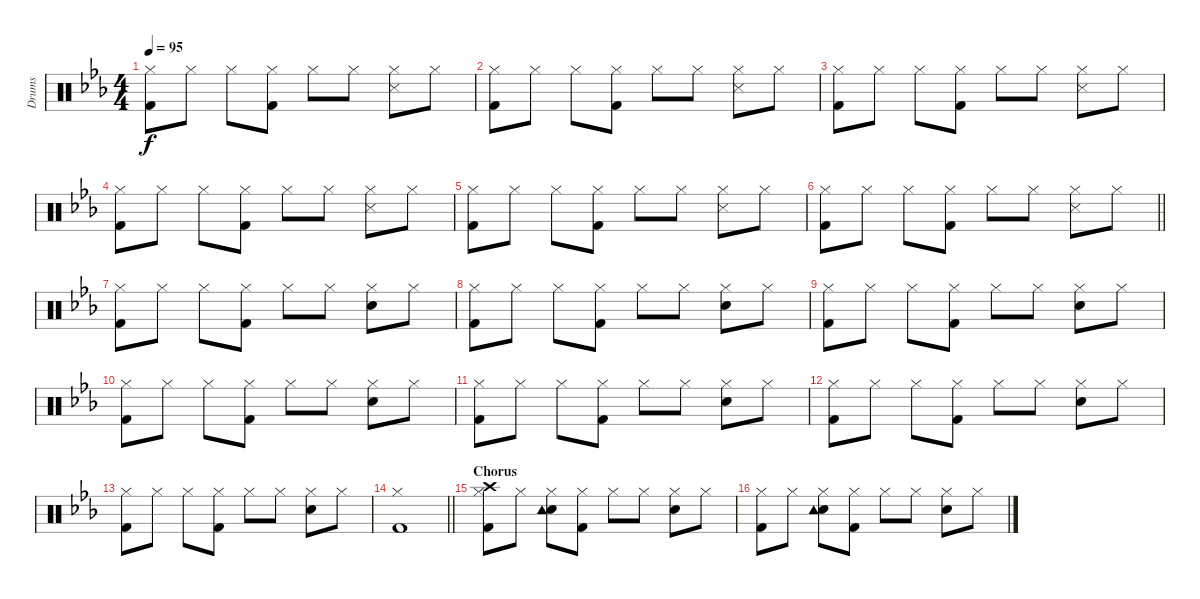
\track ("Drums" "Drums") {instrument percussion}
\staff {score}
\articulation defaults
\ts (4 4)
\tempo 95
\clef neutral
\ks eb
("Hi-Hat (closed)" "Kick (hit) 2").8{dy f} "Hi-Hat (closed)".8 "Hi-Hat (closed)".8 ("Hi-Hat (closed)" "Kick (hit) 2").8 "Hi-Hat (closed)".8 "Hi-Hat (closed)".8 ("Hi-Hat (closed)" "Snare (side stick) 3").8 "Hi-Hat (closed)".8 |
("Hi-Hat (closed)" "Kick (hit) 2").8 "Hi-Hat (closed)".8 "Hi-Hat (closed)".8 ("Hi-Hat (closed)" "Kick (hit) 2").8 "Hi-Hat (closed)".8 "Hi-Hat (closed)".8 ("Hi-Hat (closed)" "Snare (side stick) 3").8 "Hi-Hat (closed)".8 |
("Hi-Hat (closed)" "Kick (hit) 2").8 "Hi-Hat (closed)".8 "Hi-Hat (closed)".8 ("Hi-Hat (closed)" "Kick (hit) 2").8 "Hi-Hat (closed)".8 "Hi-Hat (closed)".8 ("Hi-Hat (closed)" "Snare (side stick) 3").8 "Hi-Hat (closed)".8 |
("Hi-Hat (closed)" "Kick (hit) 2").8 "Hi-Hat (closed)".8 "Hi-Hat (closed)".8 ("Hi-Hat (closed)" "Kick (hit) 2").8 "Hi-Hat (closed)".8 "Hi-Hat (closed)".8 ("Hi-Hat (closed)" "Snare (side stick) 3").8 "Hi-Hat (closed)".8 |
("Hi-Hat (closed)" "Kick (hit) 2").8 "Hi-Hat (closed)".8 "Hi-Hat (closed)".8 ("Hi-Hat (closed)" "Kick (hit) 2").8 "Hi-Hat (closed)".8 "Hi-Hat (closed)".8 ("Hi-Hat (closed)" "Snare (side stick) 3").8 "Hi-Hat (closed)".8 |
\barLineRight lightlight
("Hi-Hat (closed)" "Kick (hit) 2").8 "Hi-Hat (closed)".8 "Hi-Hat (closed)".8 ("Hi-Hat (closed)" "Kick (hit) 2").8 "Hi-Hat (closed)".8 "Hi-Hat (closed)".8 ("Hi-Hat (closed)" "Snare (side stick) 3").8 "Hi-Hat (closed)".8 |
\section ("" "")
("Hi-Hat (closed)" "Kick (hit) 2").8 "Hi-Hat (closed)".8 "Hi-Hat (closed)".8 ("Hi-Hat (closed)" "Kick (hit) 2").8 "Hi-Hat (closed)".8 "Hi-Hat (closed)".8 ("Hi-Hat (closed)" "Snare (hit) 2").8 "Hi-Hat (closed)".8 |
("Hi-Hat (closed)" "Kick (hit) 2").8 "Hi-Hat (closed)".8 "Hi-Hat (closed)".8 ("Hi-Hat (closed)" "Kick (hit) 2").8 "Hi-Hat (closed)".8 "Hi-Hat (closed)".8 ("Hi-Hat (closed)" "Snare (hit) 2").8 "Hi-Hat (closed)".8 |
("Hi-Hat (closed)" "Kick (hit) 2").8 "Hi-Hat (closed)".8 "Hi-Hat (closed)".8 ("Hi-Hat (closed)" "Kick (hit) 2").8 "Hi-Hat (closed)".8 "Hi-Hat (closed)".8 ("Hi-Hat (closed)" "Snare (hit) 2").8 "Hi-Hat (closed)".8 |
("Hi-Hat (closed)" "Kick (hit) 2").8 "Hi-Hat (closed)".8 "Hi-Hat (closed)".8 ("Hi-Hat (closed)" "Kick (hit) 2").8 "Hi-Hat (closed)".8 "Hi-Hat (closed)".8 ("Hi-Hat (closed)" "Snare (hit) 2").8 "Hi-Hat (closed)".8 |
("Hi-Hat (closed)" "Kick (hit) 2").8 "Hi-Hat (closed)".8 "Hi-Hat (closed)".8 ("Hi-Hat (closed)" "Kick (hit) 2").8 "Hi-Hat (closed)".8 "Hi-Hat (closed)".8 ("Hi-Hat (closed)" "Snare (hit) 2").8 "Hi-Hat (closed)".8 |
("Hi-Hat (closed)" "Kick (hit) 2").8 "Hi-Hat (closed)".8 "Hi-Hat (closed)".8 ("Hi-Hat (closed)" "Kick (hit) 2").8 "Hi-Hat (closed)".8 "Hi-Hat (closed)".8 ("Hi-Hat (closed)" "Snare (hit) 2").8 "Hi-Hat (closed)".8 |
("Hi-Hat (closed)" "Kick (hit) 2").8 "Hi-Hat (closed)".8 "Hi-Hat (closed)".8 ("Hi-Hat (closed)" "Kick (hit) 2").8 "Hi-Hat (closed)".8 "Hi-Hat (closed)".8 ("Hi-Hat (closed)" "Snare (hit) 2").8 "Hi-Hat (closed)".8 |
\barLineRight lightlight
("Hi-Hat (closed)" "Kick (hit) 2").1 |
\section ("" "Chorus")
("Hi-Hat (closed)" "Crash high (hit)" "Kick (hit) 2").8 "Hi-Hat (closed)".8 ("Hi-Hat (closed)" "Snare (hit) 2" "Tambourine (hit)").8 ("Hi-Hat (closed)" "Kick (hit) 2").8 "Hi-Hat (closed)".8 "Hi-Hat (closed)".8 ("Hi-Hat (closed)" "Snare (hit) 2").8 "Hi-Hat (closed)".8 |
("Hi-Hat (closed)" "Kick (hit) 2").8 "Hi-Hat (closed)".8 ("Hi-Hat (closed)" "Snare (hit) 2" "Tambourine (hit)").8 ("Hi-Hat (closed)" "Kick (hit) 2").8 "Hi-Hat (closed)".8 "Hi-Hat (closed)".8 ("Hi-Hat (closed)" "Snare (hit) 2").8 "Hi-Hat (closed)".8
